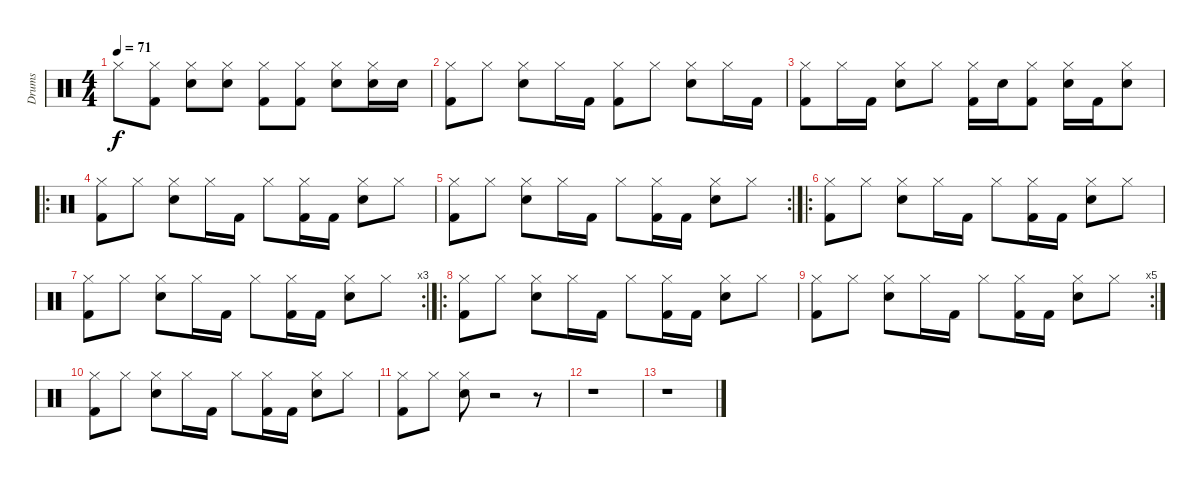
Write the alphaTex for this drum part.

\track ("Drums" "Drums") {instrument percussion}
\staff {score}
\articulation defaults
\ts (4 4)
\tempo 71
\clef neutral
\ks c "Hi-Hat (closed)".8{dy f}
("Kick (hit) 2" "Hi-Hat (closed)").8 ("Snare (hit) 2" "Hi-Hat (closed)").8 ("Snare (hit) 2" "Hi-Hat (closed)").8 ("Kick (hit) 2" "Hi-Hat (closed)").8 ("Kick (hit) 2" "Hi-Hat (closed)").8 ("Hi-Hat (closed)" "Snare (hit) 2").8 ("Hi-Hat (closed)" "Snare (hit) 2").16 "Snare (hit) 2".16 |
("Kick (hit) 2" "Hi-Hat (closed)").8 "Hi-Hat (closed)".8 ("Snare (hit) 2" "Hi-Hat (closed)").8 "Hi-Hat (closed)".16 "Kick (hit) 2".16 ("Kick (hit) 2" "Hi-Hat (closed)").8 "Hi-Hat (closed)".8 ("Snare (hit) 2" "Hi-Hat (closed)").8 "Hi-Hat (closed)".16 "Kick (hit) 2".16 |
("Hi-Hat (closed)" "Kick (hit) 2").8 "Hi-Hat (closed)".16 "Kick (hit) 2".16 ("Snare (hit) 2" "Hi-Hat (closed)").8 "Hi-Hat (closed)".8 ("Hi-Hat (closed)" "Kick (hit) 2").16 "Snare (hit) 2".16 ("Hi-Hat (closed)" "Kick (hit) 2").8 ("Snare (hit) 2" "Hi-Hat (closed)").16 "Kick (hit) 2".16 ("Snare (hit) 2" "Hi-Hat (closed)").8 |
\ro
("Hi-Hat (closed)" "Kick (hit) 2").8 "Hi-Hat (closed)".8 ("Hi-Hat (closed)" "Snare (hit) 2").8 "Hi-Hat (closed)".16 "Kick (hit) 2".16 "Hi-Hat (closed)".8 ("Hi-Hat (closed)" "Kick (hit) 2").16 "Kick (hit) 2".16 ("Hi-Hat (closed)" "Snare (hit) 2").8 "Hi-Hat (closed)".8 |
\rc 2
("Hi-Hat (closed)" "Kick (hit) 2").8 "Hi-Hat (closed)".8 ("Hi-Hat (closed)" "Snare (hit) 2").8 "Hi-Hat (closed)".16 "Kick (hit) 2".16 "Hi-Hat (closed)".8 ("Hi-Hat (closed)" "Kick (hit) 2").16 "Kick (hit) 2".16 ("Hi-Hat (closed)" "Snare (hit) 2").8 "Hi-Hat (closed)".8 |
\ro
("Hi-Hat (closed)" "Kick (hit) 2").8 "Hi-Hat (closed)".8 ("Hi-Hat (closed)" "Snare (hit) 2").8 "Hi-Hat (closed)".16 "Kick (hit) 2".16 "Hi-Hat (closed)".8 ("Hi-Hat (closed)" "Kick (hit) 2").16 "Kick (hit) 2".16 ("Hi-Hat (closed)" "Snare (hit) 2").8 "Hi-Hat (closed)".8 |
\rc 3
("Hi-Hat (closed)" "Kick (hit) 2").8 "Hi-Hat (closed)".8 ("Hi-Hat (closed)" "Snare (hit) 2").8 "Hi-Hat (closed)".16 "Kick (hit) 2".16 "Hi-Hat (closed)".8 ("Hi-Hat (closed)" "Kick (hit) 2").16 "Kick (hit) 2".16 ("Hi-Hat (closed)" "Snare (hit) 2").8 "Hi-Hat (closed)".8 |
\ro
("Hi-Hat (closed)" "Kick (hit) 2").8 "Hi-Hat (closed)".8 ("Hi-Hat (closed)" "Snare (hit) 2").8 "Hi-Hat (closed)".16 "Kick (hit) 2".16 "Hi-Hat (closed)".8 ("Hi-Hat (closed)" "Kick (hit) 2").16 "Kick (hit) 2".16 ("Hi-Hat (closed)" "Snare (hit) 2").8 "Hi-Hat (closed)".8 |
\rc 5
("Hi-Hat (closed)" "Kick (hit) 2").8 "Hi-Hat (closed)".8 ("Hi-Hat (closed)" "Snare (hit) 2").8 "Hi-Hat (closed)".16 "Kick (hit) 2".16 "Hi-Hat (closed)".8 ("Hi-Hat (closed)" "Kick (hit) 2").16 "Kick (hit) 2".16 ("Hi-Hat (closed)" "Snare (hit) 2").8 "Hi-Hat (closed)".8 |
("Hi-Hat (closed)" "Kick (hit) 2").8 "Hi-Hat (closed)".8 ("Hi-Hat (closed)" "Snare (hit) 2").8 "Hi-Hat (closed)".16 "Kick (hit) 2".16 "Hi-Hat (closed)".8 ("Hi-Hat (closed)" "Kick (hit) 2").16 "Kick (hit) 2".16 ("Hi-Hat (closed)" "Snare (hit) 2").8 "Hi-Hat (closed)".8 |
("Hi-Hat (closed)" "Kick (hit) 2").8 "Hi-Hat (closed)".8 ("Snare (hit) 2" "Hi-Hat (closed)").8 r.2 r.8 |
r.1 |
r.1
